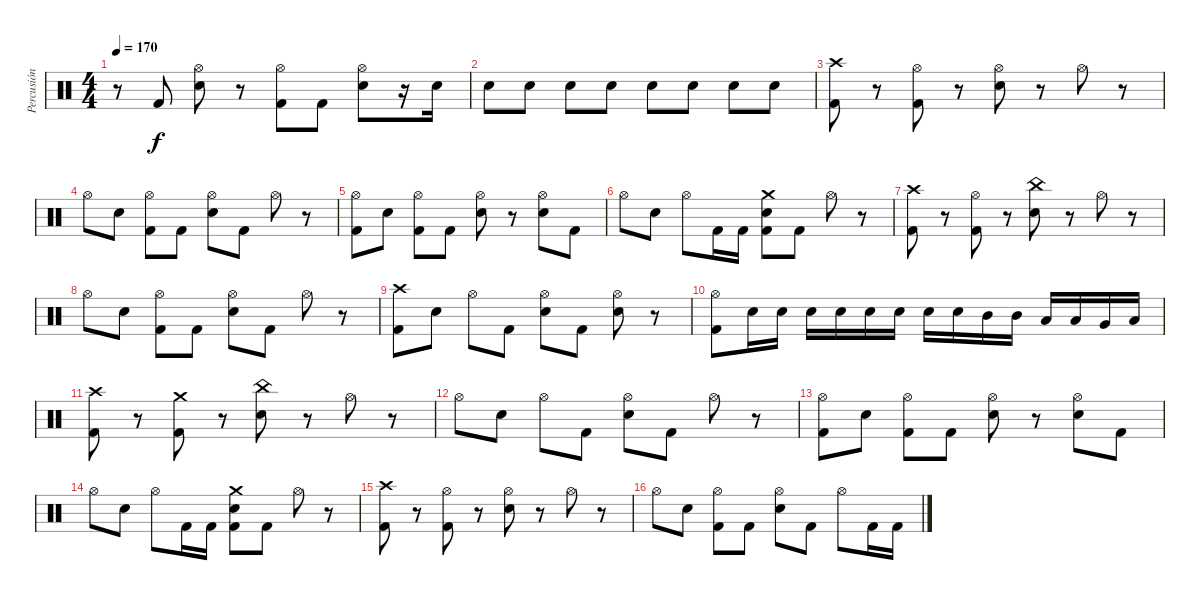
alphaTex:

\track ("Percusión" "Percusión") {instrument percussion}
\staff {score}
\articulation defaults
\ts (4 4)
\tempo 170
\clef neutral
\ks c
r.8{dy f} "Kick (hit) 2".8 ("Snare (hit) 2" "Hi-Hat (open)").8 r.8 ("Kick (hit) 2" "Hi-Hat (open)").8 "Kick (hit) 2".8 ("Snare (hit) 2" "Hi-Hat (open)").8 r.16 "Snare (hit) 2".16 |
"Snare (hit) 2".8 "Snare (hit) 2".8 "Snare (hit) 2".8 "Snare (hit) 2".8 "Snare (hit) 2".8 "Snare (hit) 2".8 "Snare (hit) 2".8 "Snare (hit) 2".8 |
("Kick (hit) 2" "Crash high (hit)").8 r.8 ("Kick (hit) 2" "Hi-Hat (open)").8 r.8 ("Snare (hit) 2" "Hi-Hat (open)").8 r.8 "Hi-Hat (open)".8 r.8 |
"Hi-Hat (open)".8 "Snare (hit) 2".8 ("Kick (hit) 2" "Hi-Hat (open)").8 "Kick (hit) 2".8 ("Snare (hit) 2" "Hi-Hat (open)").8 "Kick (hit) 2".8 "Hi-Hat (open)".8 r.8 |
("Kick (hit) 2" "Hi-Hat (open)").8 "Snare (hit) 2".8 ("Kick (hit) 2" "Hi-Hat (open)").8 "Kick (hit) 2".8 ("Snare (hit) 2" "Hi-Hat (open)").8 r.8 ("Snare (hit) 2" "Hi-Hat (open)").8 "Kick (hit) 2".8 |
"Hi-Hat (open)".8 "Snare (hit) 2".8 "Hi-Hat (open)".8 "Kick (hit) 2".16 "Kick (hit) 2".16 ("Kick (hit) 2" "Snare (hit) 2" "Crash medium (hit)").8 "Kick (hit) 2".8 "Hi-Hat (open)".8 r.8 |
("Kick (hit) 2" "Crash high (hit)").8 r.8 ("Kick (hit) 2" "Hi-Hat (open)").8 r.8 ("Snare (hit) 2" "China (hit)").8 r.8 "Hi-Hat (open)".8 r.8 |
"Hi-Hat (open)".8 "Snare (hit) 2".8 ("Kick (hit) 2" "Hi-Hat (open)").8 "Kick (hit) 2".8 ("Snare (hit) 2" "Hi-Hat (open)").8 "Kick (hit) 2".8 "Hi-Hat (open)".8 r.8 |
("Kick (hit) 2" "Crash high (hit)").8 "Snare (hit) 2".8 "Hi-Hat (open)".8 "Kick (hit) 2".8 ("Snare (hit) 2" "Hi-Hat (open)").8 "Kick (hit) 2".8 ("Snare (hit) 2" "Hi-Hat (open)").8 r.8 |
("Kick (hit) 2" "Hi-Hat (open)").8 "Snare (hit) 2".16 "Snare (hit) 2".16 "Snare (hit) 2".16 "Snare (hit) 2".16 "Snare (hit) 2".16 "Snare (hit) 2".16 "Snare (hit) 2".16 "Snare (hit) 2".16 "Mid Tom (hit)".16 "Mid Tom (hit)".16 "Low Tom (hit)".16 "Low Tom (hit)".16 "Very Low Tom (hit)".16 "Low Floor Tom (hit)".16 |
("Kick (hit) 2" "Crash high (hit)").8 r.8 ("Kick (hit) 2" "Crash medium (hit)").8 r.8 ("Snare (hit) 2" "China (hit)").8 r.8 "Hi-Hat (open)".8 r.8 |
"Hi-Hat (open)".8 "Snare (hit) 2".8 "Hi-Hat (open)".8 "Kick (hit) 2".8 ("Snare (hit) 2" "Hi-Hat (open)").8 "Kick (hit) 2".8 "Hi-Hat (open)".8 r.8 |
("Kick (hit) 2" "Hi-Hat (open)").8 "Snare (hit) 2".8 ("Kick (hit) 2" "Hi-Hat (open)").8 "Kick (hit) 2".8 ("Snare (hit) 2" "Hi-Hat (open)").8 r.8 ("Snare (hit) 2" "Hi-Hat (open)").8 "Kick (hit) 2".8 |
"Hi-Hat (open)".8 "Snare (hit) 2".8 "Hi-Hat (open)".8 "Kick (hit) 2".16 "Kick (hit) 2".16 ("Kick (hit) 2" "Snare (hit) 2" "Crash medium (hit)").8 "Kick (hit) 2".8 "Hi-Hat (open)".8 r.8 |
("Kick (hit) 2" "Crash high (hit)").8 r.8 ("Kick (hit) 2" "Hi-Hat (open)").8 r.8 ("Snare (hit) 2" "Hi-Hat (open)").8 r.8 "Hi-Hat (open)".8 r.8 |
"Hi-Hat (open)".8 "Snare (hit) 2".8 ("Kick (hit) 2" "Hi-Hat (open)").8 "Kick (hit) 2".8 ("Snare (hit) 2" "Hi-Hat (open)").8 "Kick (hit) 2".8 "Hi-Hat (open)".8 "Kick (hit) 2".16 "Kick (hit) 2".16
